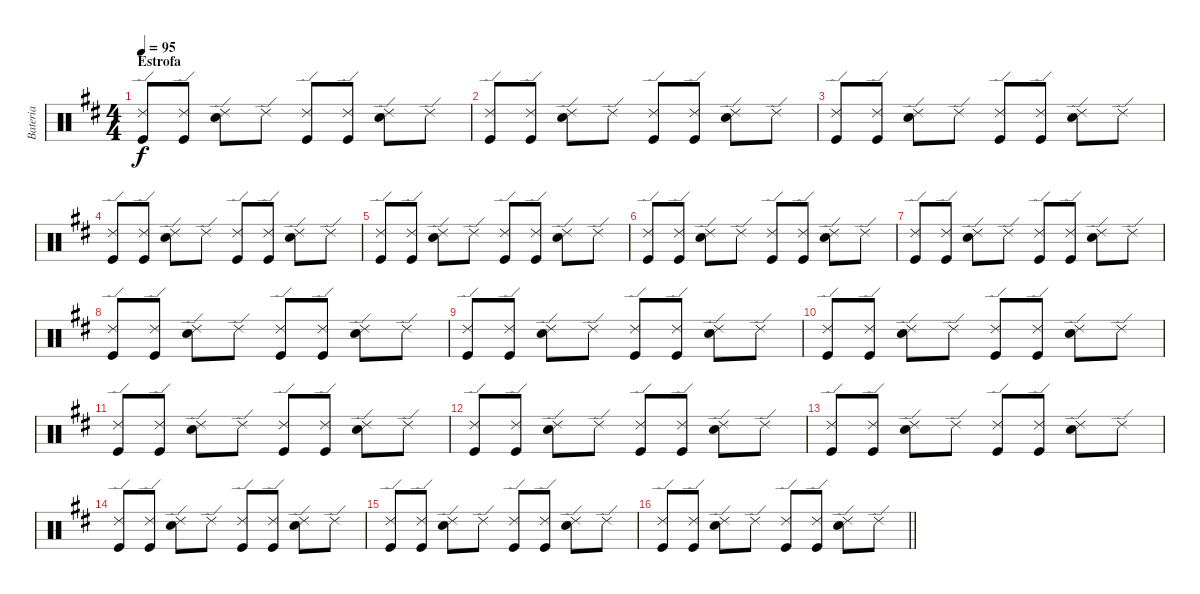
\track ("Bateria" "Bateria") {instrument percussion}
\staff {score}
\articulation defaults
\ts (4 4)
\section ("" "Estrofa")
\tempo 95
\clef neutral
\ks d
("Ride (edge) 2" "Kick (hit)").8{dy f} ("Ride (edge) 2" "Kick (hit)").8 ("Ride (edge) 2" "Snare (hit) 2").8 "Ride (edge) 2".8 ("Ride (edge) 2" "Kick (hit)").8 ("Ride (edge) 2" "Kick (hit)").8 ("Ride (edge) 2" "Snare (hit) 2").8 "Ride (edge) 2".8 |
("Ride (edge) 2" "Kick (hit)").8 ("Ride (edge) 2" "Kick (hit)").8 ("Ride (edge) 2" "Snare (hit) 2").8 "Ride (edge) 2".8 ("Ride (edge) 2" "Kick (hit)").8 ("Ride (edge) 2" "Kick (hit)").8 ("Ride (edge) 2" "Snare (hit) 2").8 "Ride (edge) 2".8 |
("Ride (edge) 2" "Kick (hit)").8 ("Ride (edge) 2" "Kick (hit)").8 ("Ride (edge) 2" "Snare (hit) 2").8 "Ride (edge) 2".8 ("Ride (edge) 2" "Kick (hit)").8 ("Ride (edge) 2" "Kick (hit)").8 ("Ride (edge) 2" "Snare (hit) 2").8 "Ride (edge) 2".8 |
("Ride (edge) 2" "Kick (hit)").8 ("Ride (edge) 2" "Kick (hit)").8 ("Ride (edge) 2" "Snare (hit) 2").8 "Ride (edge) 2".8 ("Ride (edge) 2" "Kick (hit)").8 ("Ride (edge) 2" "Kick (hit)").8 ("Ride (edge) 2" "Snare (hit) 2").8 "Ride (edge) 2".8 |
("Ride (edge) 2" "Kick (hit)").8 ("Ride (edge) 2" "Kick (hit)").8 ("Ride (edge) 2" "Snare (hit) 2").8 "Ride (edge) 2".8 ("Ride (edge) 2" "Kick (hit)").8 ("Ride (edge) 2" "Kick (hit)").8 ("Ride (edge) 2" "Snare (hit) 2").8 "Ride (edge) 2".8 |
("Ride (edge) 2" "Kick (hit)").8 ("Ride (edge) 2" "Kick (hit)").8 ("Ride (edge) 2" "Snare (hit) 2").8 "Ride (edge) 2".8 ("Ride (edge) 2" "Kick (hit)").8 ("Ride (edge) 2" "Kick (hit)").8 ("Ride (edge) 2" "Snare (hit) 2").8 "Ride (edge) 2".8 |
("Ride (edge) 2" "Kick (hit)").8 ("Ride (edge) 2" "Kick (hit)").8 ("Ride (edge) 2" "Snare (hit) 2").8 "Ride (edge) 2".8 ("Ride (edge) 2" "Kick (hit)").8 ("Ride (edge) 2" "Kick (hit)").8 ("Ride (edge) 2" "Snare (hit) 2").8 "Ride (edge) 2".8 |
("Ride (edge) 2" "Kick (hit)").8 ("Ride (edge) 2" "Kick (hit)").8 ("Ride (edge) 2" "Snare (hit) 2").8 "Ride (edge) 2".8 ("Ride (edge) 2" "Kick (hit)").8 ("Ride (edge) 2" "Kick (hit)").8 ("Ride (edge) 2" "Snare (hit) 2").8 "Ride (edge) 2".8 |
("Ride (edge) 2" "Kick (hit)").8 ("Ride (edge) 2" "Kick (hit)").8 ("Ride (edge) 2" "Snare (hit) 2").8 "Ride (edge) 2".8 ("Ride (edge) 2" "Kick (hit)").8 ("Ride (edge) 2" "Kick (hit)").8 ("Ride (edge) 2" "Snare (hit) 2").8 "Ride (edge) 2".8 |
("Ride (edge) 2" "Kick (hit)").8 ("Ride (edge) 2" "Kick (hit)").8 ("Ride (edge) 2" "Snare (hit) 2").8 "Ride (edge) 2".8 ("Ride (edge) 2" "Kick (hit)").8 ("Ride (edge) 2" "Kick (hit)").8 ("Ride (edge) 2" "Snare (hit) 2").8 "Ride (edge) 2".8 |
("Ride (edge) 2" "Kick (hit)").8 ("Ride (edge) 2" "Kick (hit)").8 ("Ride (edge) 2" "Snare (hit) 2").8 "Ride (edge) 2".8 ("Ride (edge) 2" "Kick (hit)").8 ("Ride (edge) 2" "Kick (hit)").8 ("Ride (edge) 2" "Snare (hit) 2").8 "Ride (edge) 2".8 |
("Ride (edge) 2" "Kick (hit)").8 ("Ride (edge) 2" "Kick (hit)").8 ("Ride (edge) 2" "Snare (hit) 2").8 "Ride (edge) 2".8 ("Ride (edge) 2" "Kick (hit)").8 ("Ride (edge) 2" "Kick (hit)").8 ("Ride (edge) 2" "Snare (hit) 2").8 "Ride (edge) 2".8 |
("Ride (edge) 2" "Kick (hit)").8 ("Ride (edge) 2" "Kick (hit)").8 ("Ride (edge) 2" "Snare (hit) 2").8 "Ride (edge) 2".8 ("Ride (edge) 2" "Kick (hit)").8 ("Ride (edge) 2" "Kick (hit)").8 ("Ride (edge) 2" "Snare (hit) 2").8 "Ride (edge) 2".8 |
("Ride (edge) 2" "Kick (hit)").8 ("Ride (edge) 2" "Kick (hit)").8 ("Ride (edge) 2" "Snare (hit) 2").8 "Ride (edge) 2".8 ("Ride (edge) 2" "Kick (hit)").8 ("Ride (edge) 2" "Kick (hit)").8 ("Ride (edge) 2" "Snare (hit) 2").8 "Ride (edge) 2".8 |
("Ride (edge) 2" "Kick (hit)").8 ("Ride (edge) 2" "Kick (hit)").8 ("Ride (edge) 2" "Snare (hit) 2").8 "Ride (edge) 2".8 ("Ride (edge) 2" "Kick (hit)").8 ("Ride (edge) 2" "Kick (hit)").8 ("Ride (edge) 2" "Snare (hit) 2").8 "Ride (edge) 2".8 |
\barLineRight lightlight
("Ride (edge) 2" "Kick (hit)").8 ("Ride (edge) 2" "Kick (hit)").8 ("Ride (edge) 2" "Snare (hit) 2").8 "Ride (edge) 2".8 ("Ride (edge) 2" "Kick (hit)").8 ("Ride (edge) 2" "Kick (hit)").8 ("Ride (edge) 2" "Snare (hit) 2").8 "Ride (edge) 2".8
